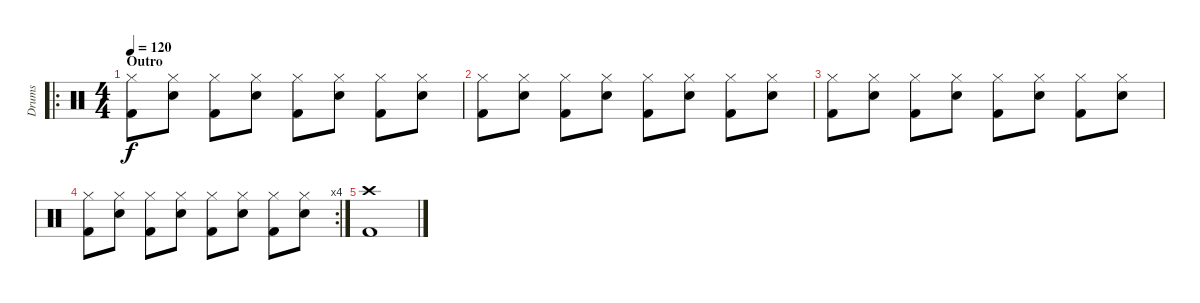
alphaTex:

\track ("Drums" "Drums") {instrument percussion}
\staff {score}
\articulation defaults
\ro
\ts (4 4)
\section ("" "Outro")
\tempo 120
\clef neutral
\ks c
("Hi-Hat (closed)" "Kick (hit) 2").8{dy f} ("Hi-Hat (closed)" "Snare (hit) 2").8 ("Hi-Hat (closed)" "Kick (hit) 2").8 ("Hi-Hat (closed)" "Snare (hit) 2").8 ("Hi-Hat (closed)" "Kick (hit) 2").8 ("Hi-Hat (closed)" "Snare (hit) 2").8 ("Hi-Hat (closed)" "Kick (hit) 2").8 ("Hi-Hat (closed)" "Snare (hit) 2").8 |
("Hi-Hat (closed)" "Kick (hit) 2").8 ("Hi-Hat (closed)" "Snare (hit) 2").8 ("Hi-Hat (closed)" "Kick (hit) 2").8 ("Hi-Hat (closed)" "Snare (hit) 2").8 ("Hi-Hat (closed)" "Kick (hit) 2").8 ("Hi-Hat (closed)" "Snare (hit) 2").8 ("Hi-Hat (closed)" "Kick (hit) 2").8 ("Hi-Hat (closed)" "Snare (hit) 2").8 |
("Hi-Hat (closed)" "Kick (hit) 2").8 ("Hi-Hat (closed)" "Snare (hit) 2").8 ("Hi-Hat (closed)" "Kick (hit) 2").8 ("Hi-Hat (closed)" "Snare (hit) 2").8 ("Hi-Hat (closed)" "Kick (hit) 2").8 ("Hi-Hat (closed)" "Snare (hit) 2").8 ("Hi-Hat (closed)" "Kick (hit) 2").8 ("Hi-Hat (closed)" "Snare (hit) 2").8 |
\rc 4
("Hi-Hat (closed)" "Kick (hit) 2").8 ("Hi-Hat (closed)" "Snare (hit) 2").8 ("Hi-Hat (closed)" "Kick (hit) 2").8 ("Hi-Hat (closed)" "Snare (hit) 2").8 ("Hi-Hat (closed)" "Kick (hit) 2").8 ("Hi-Hat (closed)" "Snare (hit) 2").8 ("Hi-Hat (closed)" "Kick (hit) 2").8 ("Hi-Hat (closed)" "Snare (hit) 2").8 |
("Crash high (hit)" "Kick (hit) 2").1
